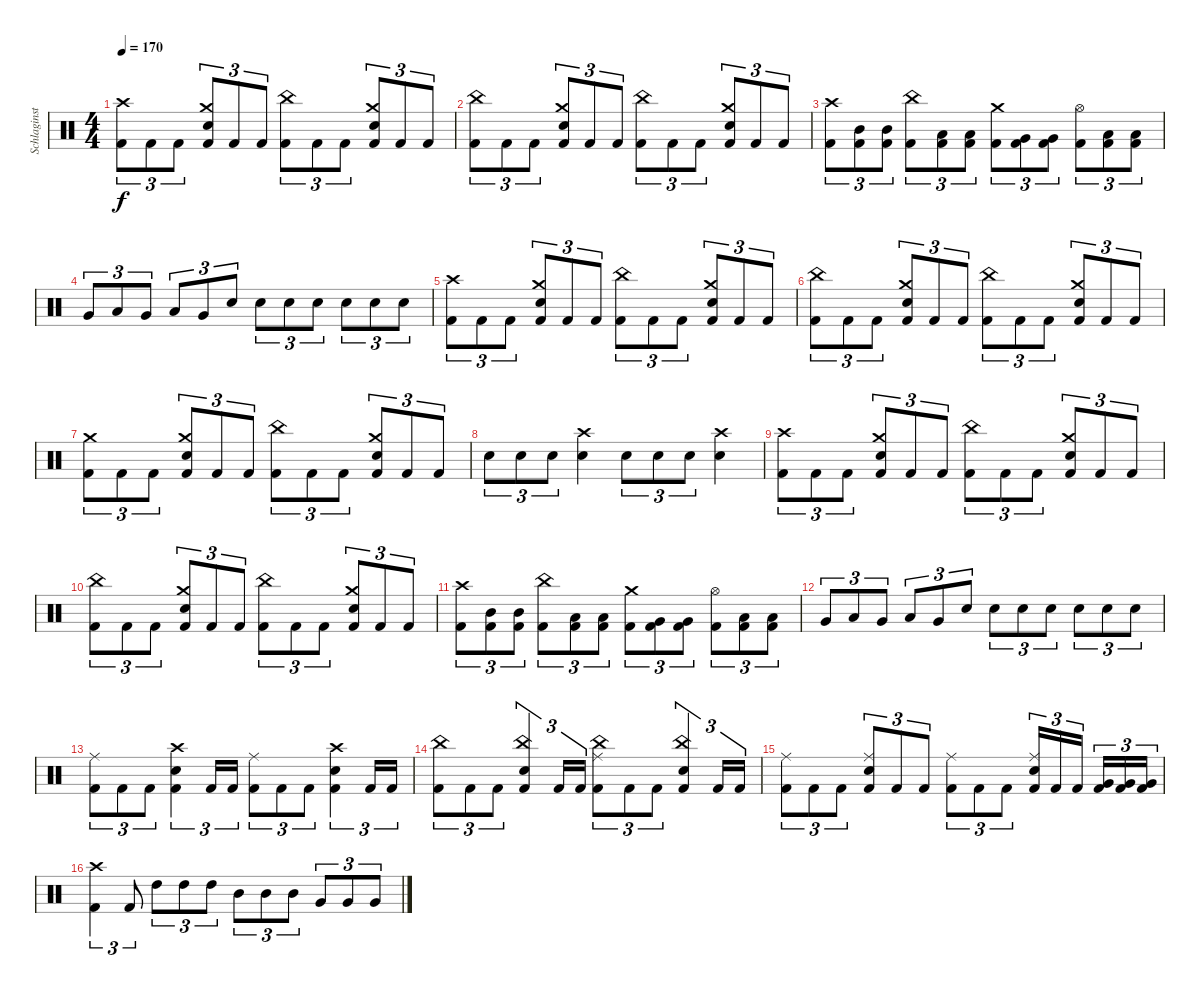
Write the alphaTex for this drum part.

\track ("Schlaginstrumente - Auswahl" "Schlaginst") {instrument percussion}
\staff {score}
\articulation defaults
\ts (4 4)
\tempo 170
\clef neutral
\ks c
("Crash high (hit)" "Kick (hit) 2").8{tu (3 2) dy f} "Kick (hit) 2".8{tu (3 2)} "Kick (hit) 2".8{tu (3 2)} ("Crash medium (hit)" "Electric Snare (hit)" "Kick (hit) 2").8{tu (3 2)} "Kick (hit) 2".8{tu (3 2)} "Kick (hit) 2".8{tu (3 2)} ("China (hit)" "Kick (hit) 2").8{tu (3 2)} "Kick (hit) 2".8{tu (3 2)} "Kick (hit) 2".8{tu (3 2)} ("Crash medium (hit)" "Electric Snare (hit)" "Kick (hit) 2").8{tu (3 2)} "Kick (hit) 2".8{tu (3 2)} "Kick (hit) 2".8{tu (3 2)} |
("China (hit)" "Kick (hit) 2").8{tu (3 2)} "Kick (hit) 2".8{tu (3 2)} "Kick (hit) 2".8{tu (3 2)} ("Crash medium (hit)" "Electric Snare (hit)" "Kick (hit) 2").8{tu (3 2)} "Kick (hit) 2".8{tu (3 2)} "Kick (hit) 2".8{tu (3 2)} ("China (hit)" "Kick (hit) 2").8{tu (3 2)} "Kick (hit) 2".8{tu (3 2)} "Kick (hit) 2".8{tu (3 2)} ("Crash medium (hit)" "Electric Snare (hit)" "Kick (hit) 2").8{tu (3 2)} "Kick (hit) 2".8{tu (3 2)} "Kick (hit) 2".8{tu (3 2)} |
("Crash high (hit)" "Kick (hit) 2").8{tu (3 2)} ("Mid Tom (hit)" "Kick (hit) 2").8{tu (3 2)} ("Mid Tom (hit)" "Kick (hit) 2").8{tu (3 2)} ("China (hit)" "Kick (hit) 2").8{tu (3 2)} ("Low Tom (hit)" "Kick (hit) 2").8{tu (3 2)} ("Low Tom (hit)" "Kick (hit) 2").8{tu (3 2)} ("Crash medium (hit)" "Kick (hit) 2").8{tu (3 2)} ("Very Low Tom (hit)" "Kick (hit) 2").8{tu (3 2)} ("Very Low Tom (hit)" "Kick (hit) 2").8{tu (3 2)} ("Hi-Hat (open)" "Kick (hit) 2").8{tu (3 2)} ("Low Floor Tom (hit)" "Kick (hit) 2").8{tu (3 2)} ("Low Floor Tom (hit)" "Kick (hit) 2").8{tu (3 2)} |
"Very Low Tom (hit)".8{tu (3 2)} "Low Tom (hit)".8{tu (3 2)} "Very Low Tom (hit)".8{tu (3 2)} "Low Tom (hit)".8{tu (3 2)} "Very Low Tom (hit)".8{tu (3 2)} "Electric Snare (hit)".8{tu (3 2)} "Electric Snare (hit)".8{tu (3 2)} "Electric Snare (hit)".8{tu (3 2)} "Electric Snare (hit)".8{tu (3 2)} "Electric Snare (hit)".8{tu (3 2)} "Electric Snare (hit)".8{tu (3 2)} "Electric Snare (hit)".8{tu (3 2)} |
("Crash high (hit)" "Kick (hit) 2").8{tu (3 2)} "Kick (hit) 2".8{tu (3 2)} "Kick (hit) 2".8{tu (3 2)} ("Crash medium (hit)" "Electric Snare (hit)" "Kick (hit) 2").8{tu (3 2)} "Kick (hit) 2".8{tu (3 2)} "Kick (hit) 2".8{tu (3 2)} ("China (hit)" "Kick (hit) 2").8{tu (3 2)} "Kick (hit) 2".8{tu (3 2)} "Kick (hit) 2".8{tu (3 2)} ("Crash medium (hit)" "Electric Snare (hit)" "Kick (hit) 2").8{tu (3 2)} "Kick (hit) 2".8{tu (3 2)} "Kick (hit) 2".8{tu (3 2)} |
("China (hit)" "Kick (hit) 2").8{tu (3 2)} "Kick (hit) 2".8{tu (3 2)} "Kick (hit) 2".8{tu (3 2)} ("Crash medium (hit)" "Electric Snare (hit)" "Kick (hit) 2").8{tu (3 2)} "Kick (hit) 2".8{tu (3 2)} "Kick (hit) 2".8{tu (3 2)} ("China (hit)" "Kick (hit) 2").8{tu (3 2)} "Kick (hit) 2".8{tu (3 2)} "Kick (hit) 2".8{tu (3 2)} ("Crash medium (hit)" "Electric Snare (hit)" "Kick (hit) 2").8{tu (3 2)} "Kick (hit) 2".8{tu (3 2)} "Kick (hit) 2".8{tu (3 2)} |
("Crash medium (hit)" "Kick (hit) 2").8{tu (3 2)} "Kick (hit) 2".8{tu (3 2)} "Kick (hit) 2".8{tu (3 2)} ("Crash medium (hit)" "Electric Snare (hit)" "Kick (hit) 2").8{tu (3 2)} "Kick (hit) 2".8{tu (3 2)} "Kick (hit) 2".8{tu (3 2)} ("China (hit)" "Kick (hit) 2").8{tu (3 2)} "Kick (hit) 2".8{tu (3 2)} "Kick (hit) 2".8{tu (3 2)} ("Crash medium (hit)" "Electric Snare (hit)" "Kick (hit) 2").8{tu (3 2)} "Kick (hit) 2".8{tu (3 2)} "Kick (hit) 2".8{tu (3 2)} |
"Electric Snare (hit)".8{tu (3 2)} "Electric Snare (hit)".8{tu (3 2)} "Electric Snare (hit)".8{tu (3 2)} ("Crash high (hit)" "Electric Snare (hit)").4 "Electric Snare (hit)".8{tu (3 2)} "Electric Snare (hit)".8{tu (3 2)} "Electric Snare (hit)".8{tu (3 2)} ("Crash high (hit)" "Electric Snare (hit)").4 |
("Crash high (hit)" "Kick (hit) 2").8{tu (3 2)} "Kick (hit) 2".8{tu (3 2)} "Kick (hit) 2".8{tu (3 2)} ("Crash medium (hit)" "Electric Snare (hit)" "Kick (hit) 2").8{tu (3 2)} "Kick (hit) 2".8{tu (3 2)} "Kick (hit) 2".8{tu (3 2)} ("China (hit)" "Kick (hit) 2").8{tu (3 2)} "Kick (hit) 2".8{tu (3 2)} "Kick (hit) 2".8{tu (3 2)} ("Crash medium (hit)" "Electric Snare (hit)" "Kick (hit) 2").8{tu (3 2)} "Kick (hit) 2".8{tu (3 2)} "Kick (hit) 2".8{tu (3 2)} |
("China (hit)" "Kick (hit) 2").8{tu (3 2)} "Kick (hit) 2".8{tu (3 2)} "Kick (hit) 2".8{tu (3 2)} ("Crash medium (hit)" "Electric Snare (hit)" "Kick (hit) 2").8{tu (3 2)} "Kick (hit) 2".8{tu (3 2)} "Kick (hit) 2".8{tu (3 2)} ("China (hit)" "Kick (hit) 2").8{tu (3 2)} "Kick (hit) 2".8{tu (3 2)} "Kick (hit) 2".8{tu (3 2)} ("Crash medium (hit)" "Electric Snare (hit)" "Kick (hit) 2").8{tu (3 2)} "Kick (hit) 2".8{tu (3 2)} "Kick (hit) 2".8{tu (3 2)} |
("Crash high (hit)" "Kick (hit) 2").8{tu (3 2)} ("Mid Tom (hit)" "Kick (hit) 2").8{tu (3 2)} ("Mid Tom (hit)" "Kick (hit) 2").8{tu (3 2)} ("China (hit)" "Kick (hit) 2").8{tu (3 2)} ("Low Tom (hit)" "Kick (hit) 2").8{tu (3 2)} ("Low Tom (hit)" "Kick (hit) 2").8{tu (3 2)} ("Crash medium (hit)" "Kick (hit) 2").8{tu (3 2)} ("Very Low Tom (hit)" "Kick (hit) 2").8{tu (3 2)} ("Very Low Tom (hit)" "Kick (hit) 2").8{tu (3 2)} ("Hi-Hat (open)" "Kick (hit) 2").8{tu (3 2)} ("Low Floor Tom (hit)" "Kick (hit) 2").8{tu (3 2)} ("Low Floor Tom (hit)" "Kick (hit) 2").8{tu (3 2)} |
"Very Low Tom (hit)".8{tu (3 2)} "Low Tom (hit)".8{tu (3 2)} "Very Low Tom (hit)".8{tu (3 2)} "Low Tom (hit)".8{tu (3 2)} "Very Low Tom (hit)".8{tu (3 2)} "Electric Snare (hit)".8{tu (3 2)} "Electric Snare (hit)".8{tu (3 2)} "Electric Snare (hit)".8{tu (3 2)} "Electric Snare (hit)".8{tu (3 2)} "Electric Snare (hit)".8{tu (3 2)} "Electric Snare (hit)".8{tu (3 2)} "Electric Snare (hit)".8{tu (3 2)} |
("Ride (middle)" "Kick (hit) 2").8{tu (3 2)} "Kick (hit) 2".8{tu (3 2)} "Kick (hit) 2".8{tu (3 2)} ("Crash high (hit)" "Snare (hit) 2" "Kick (hit) 2").4{tu (3 2)} "Kick (hit) 2".16{tu (3 2)} "Kick (hit) 2".16{tu (3 2)} ("Ride (middle)" "Kick (hit) 2").8{tu (3 2)} "Kick (hit) 2".8{tu (3 2)} "Kick (hit) 2".8{tu (3 2)} ("Crash high (hit)" "Snare (hit) 2" "Kick (hit) 2").4{tu (3 2)} "Kick (hit) 2".16{tu (3 2)} "Kick (hit) 2".16{tu (3 2)} |
("China (hit)" "Kick (hit) 2").8{tu (3 2)} "Kick (hit) 2".8{tu (3 2)} "Kick (hit) 2".8{tu (3 2)} ("China (hit)" "Snare (hit) 2" "Kick (hit) 2").4{tu (3 2)} "Kick (hit) 2".16{tu (3 2)} "Kick (hit) 2".16{tu (3 2)} ("China (hit)" "Ride (middle)" "Kick (hit) 2").8{tu (3 2)} "Kick (hit) 2".8{tu (3 2)} "Kick (hit) 2".8{tu (3 2)} ("China (hit)" "Snare (hit) 2" "Kick (hit) 2").4{tu (3 2)} "Kick (hit) 2".16{tu (3 2)} "Kick (hit) 2".16{tu (3 2)} |
("Ride (middle)" "Kick (hit) 2").8{tu (3 2)} "Kick (hit) 2".8{tu (3 2)} "Kick (hit) 2".8{tu (3 2)} ("Ride (middle)" "Snare (hit) 2" "Kick (hit) 2").8{tu (3 2)} "Kick (hit) 2".8{tu (3 2)} "Kick (hit) 2".8{tu (3 2)} ("Ride (middle)" "Kick (hit) 2").8{tu (3 2)} "Kick (hit) 2".8{tu (3 2)} "Kick (hit) 2".8{tu (3 2)} ("Ride (middle)" "Snare (hit) 2" "Kick (hit) 2").16{tu (3 2)} "Kick (hit) 2".16{tu (3 2)} "Kick (hit) 2".16{tu (3 2) beam splitsecondary} ("Very Low Tom (hit)" "Kick (hit) 2").16{tu (3 2)} ("Very Low Tom (hit)" "Kick (hit) 2").16{tu (3 2)} ("Very Low Tom (hit)" "Kick (hit) 2").16{tu (3 2)} |
("Crash high (hit)" "Kick (hit) 2").4{tu (3 2)} "Kick (hit) 2".8{tu (3 2)} "High Tom (hit)".8{tu (3 2)} "High Tom (hit)".8{tu (3 2)} "High Tom (hit)".8{tu (3 2)} "Mid Tom (hit)".8{tu (3 2)} "Mid Tom (hit)".8{tu (3 2)} "Mid Tom (hit)".8{tu (3 2)} "Very Low Tom (hit)".8{tu (3 2)} "Very Low Tom (hit)".8{tu (3 2)} "Very Low Tom (hit)".8{tu (3 2)}
